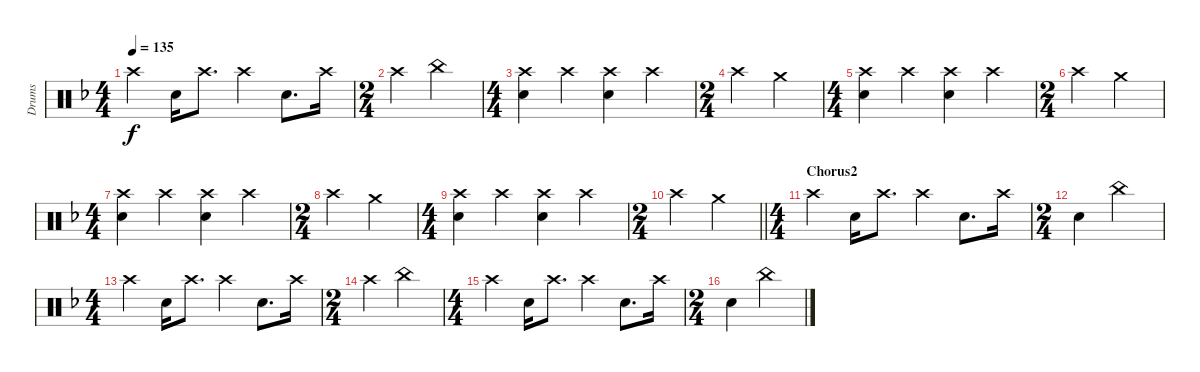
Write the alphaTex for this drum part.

\track ("Drums" "Drums") {instrument percussion}
\staff {score}
\articulation defaults
\ts (4 4)
\tempo 135
\clef neutral
\ks dminor "Crash high (hit)".4{dy f} "Snare (hit) 2".16 "Crash high (hit)".8{d} "Crash high (hit)".4 "Snare (hit) 2".8{d} "Crash high (hit)".16
|
\ts (2 4)
"Crash high (hit)".4 "China (hit)".4 |
\ts (4 4)
("Crash high (hit)" "Snare (hit) 2").4 "Crash high (hit)".4 ("Crash high (hit)" "Snare (hit) 2").4 "Crash high (hit)".4 |
\ts (2 4)
"Crash high (hit)".4 "Crash medium (hit)".4 |
\ts (4 4)
("Crash high (hit)" "Snare (hit) 2").4 "Crash high (hit)".4 ("Crash high (hit)" "Snare (hit) 2").4 "Crash high (hit)".4 |
\ts (2 4)
"Crash high (hit)".4 "Crash medium (hit)".4 |
\ts (4 4)
("Crash high (hit)" "Snare (hit) 2").4 "Crash high (hit)".4 ("Crash high (hit)" "Snare (hit) 2").4 "Crash high (hit)".4 |
\ts (2 4)
"Crash high (hit)".4 "Crash medium (hit)".4 |
\ts (4 4)
("Crash high (hit)" "Snare (hit) 2").4 "Crash high (hit)".4 ("Crash high (hit)" "Snare (hit) 2").4 "Crash high (hit)".4 |
\ts (2 4)
\barLineRight lightlight "Crash high (hit)".4 "Crash medium (hit)".4
|
\ts (4 4)
\section ("" "Chorus2")
"Crash high (hit)".4 "Snare (hit) 2".16 "Crash high (hit)".8{d} "Crash high (hit)".4 "Snare (hit) 2".8{d} "Crash high (hit)".16 |
\ts (2 4)
"Snare (hit) 2".4 "China (hit)".4 |
\ts (4 4)
"Crash high (hit)".4 "Snare (hit) 2".16 "Crash high (hit)".8{d} "Crash high (hit)".4 "Snare (hit) 2".8{d} "Crash high (hit)".16 |
\ts (2 4)
"Crash high (hit)".4 "China (hit)".4 |
\ts (4 4)
"Crash high (hit)".4 "Snare (hit) 2".16 "Crash high (hit)".8{d} "Crash high (hit)".4 "Snare (hit) 2".8{d} "Crash high (hit)".16 |
\ts (2 4)
"Snare (hit) 2".4 "China (hit)".4
